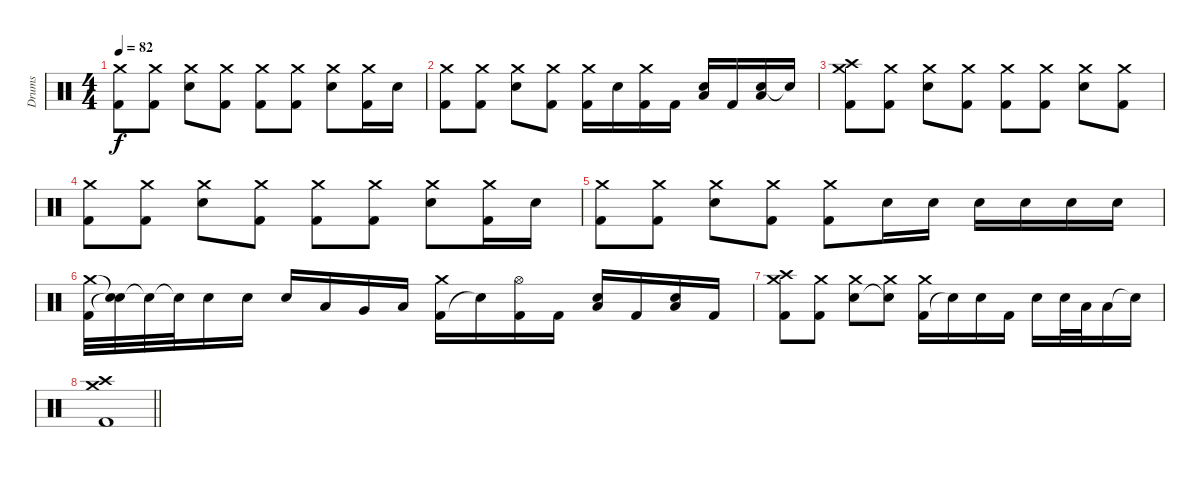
\track ("Drums" "Drums") {instrument percussion}
\staff {score}
\articulation defaults
\ts (4 4)
\tempo 82
\clef neutral
\ks c
("Kick (hit) 2" "Crash medium (hit)").8{dy f} ("Kick (hit) 2" "Crash medium (hit)").8 ("Electric Snare (hit)" "Crash medium (hit)").8 ("Kick (hit) 2" "Crash medium (hit)").8 ("Kick (hit) 2" "Crash medium (hit)").8 ("Kick (hit) 2" "Crash medium (hit)").8 ("Electric Snare (hit)" "Crash medium (hit)").8 ("Kick (hit) 2" "Crash medium (hit)").16 "Electric Snare (hit)".16 |
("Kick (hit) 2" "Crash medium (hit)").8 ("Kick (hit) 2" "Crash medium (hit)").8 ("Electric Snare (hit)" "Crash medium (hit)").8 ("Kick (hit) 2" "Crash medium (hit)").8 ("Kick (hit) 2" "Crash medium (hit)").16 "Electric Snare (hit)".16 ("Kick (hit) 2" "Crash medium (hit)").16 "Kick (hit) 2".16 ("Electric Snare (hit)" "Low Floor Tom (hit)").16 "Kick (hit) 2".16 ("Electric Snare (hit)" "Low Floor Tom (hit)").16 "Snare (hit)"{t}.16 |
("Kick (hit) 2" "Crash medium (hit)" "Crash high (hit)").8 ("Kick (hit) 2" "Crash medium (hit)").8 ("Electric Snare (hit)" "Crash medium (hit)").8 ("Kick (hit) 2" "Crash medium (hit)").8 ("Kick (hit) 2" "Crash medium (hit)").8 ("Kick (hit) 2" "Crash medium (hit)").8 ("Electric Snare (hit)" "Crash medium (hit)").8 ("Kick (hit) 2" "Crash medium (hit)").8 |
("Kick (hit) 2" "Crash medium (hit)").8 ("Kick (hit) 2" "Crash medium (hit)").8 ("Electric Snare (hit)" "Crash medium (hit)").8 ("Kick (hit) 2" "Crash medium (hit)").8 ("Kick (hit) 2" "Crash medium (hit)").8 ("Kick (hit) 2" "Crash medium (hit)").8 ("Electric Snare (hit)" "Crash medium (hit)").8 ("Kick (hit) 2" "Crash medium (hit)").16 "Electric Snare (hit)".16 |
("Kick (hit) 2" "Crash medium (hit)").8 ("Kick (hit) 2" "Crash medium (hit)").8 ("Electric Snare (hit)" "Crash medium (hit)").8 ("Kick (hit) 2" "Crash medium (hit)").8 ("Kick (hit) 2" "Crash medium (hit)").8 "Electric Snare (hit)".16 "Electric Snare (hit)".16 "Electric Snare (hit)".16 "Electric Snare (hit)".16 "Electric Snare (hit)".16 "Electric Snare (hit)".16 |
("Kick (hit) 2" "Crash medium (hit)").32 ("Snare (hit)"{t} "Snare (hit)"{t}).32 "Electric Snare (hit)"{t}.32 "Electric Snare (hit)"{t}.32 "Electric Snare (hit)".16 "Electric Snare (hit)".16 "Electric Snare (hit)".16 "Low Tom (hit)".16 "Very Low Tom (hit)".16 "Low Floor Tom (hit)".16 ("Kick (hit) 2" "Crash medium (hit)").16 "Snare (hit)"{t}.16 ("Kick (hit) 2" "Hi-Hat (open)").16 "Kick (hit) 2".16 ("Electric Snare (hit)" "Low Floor Tom (hit)").16 "Kick (hit) 2".16 ("Electric Snare (hit)" "Low Floor Tom (hit)").16 "Kick (hit) 2".16 |
("Kick (hit) 2" "Crash medium (hit)" "Crash high (hit)").8 ("Kick (hit) 2" "Crash medium (hit)").8 ("Electric Snare (hit)" "Crash medium (hit)").8 ("Snare (hit)"{t} "Crash medium (hit)").8 ("Kick (hit) 2" "Crash medium (hit)").16 "Snare (hit)"{t}.16 "Electric Snare (hit)".16 "Kick (hit) 2".16 "Electric Snare (hit)".16 "Electric Snare (hit)".32 "Low Tom (hit)".32 "Low Floor Tom (hit)".16 "Snare (hit)"{t}.16 |
\barLineRight lightlight
("Kick (hit) 2" "Crash medium (hit)" "Crash high (hit)").1
